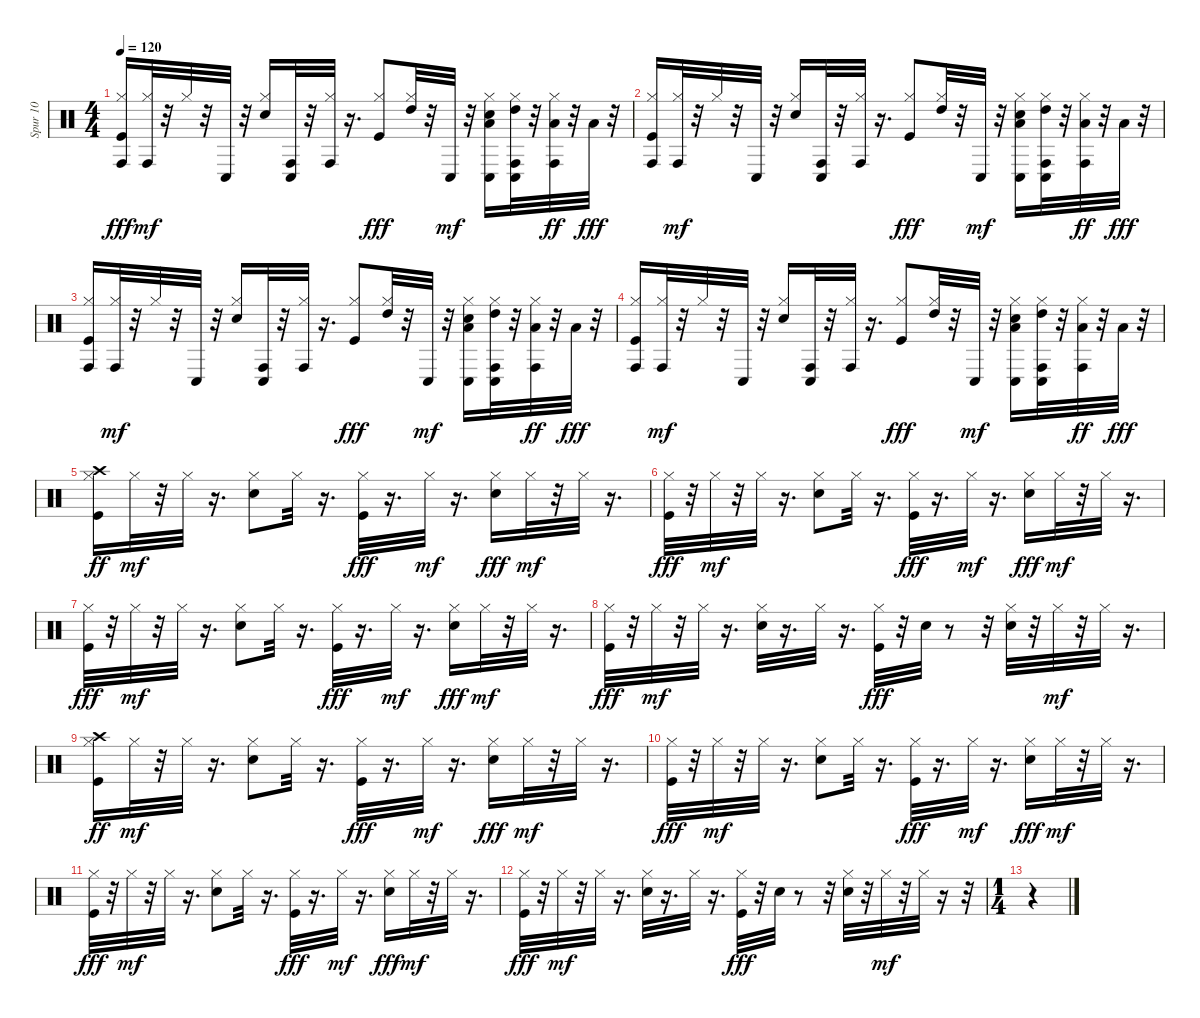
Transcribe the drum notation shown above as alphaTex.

\track ("Spur 10" "Spur 10") {instrument percussion}
\staff {score}
\articulation defaults
\ts (4 4)
\tempo 120
\clef neutral
\ks c
("Kick (hit)" "Hi-Hat (closed)" "Conga high (hit)").16{dy fff} ("Hi-Hat (closed)" "Conga high (hit)").32{dy mf} r.32 "Hi-Hat (closed)".32 r.32 "Conga low (hit)".32 r.32 ("Snare (hit) 2" "Hi-Hat (closed)").16 ("Conga high (hit)" "Conga low (hit)").32 r.32 ("Hi-Hat (closed)" "Conga high (hit)").32 r.16{d} ("Kick (hit)" "Hi-Hat (closed)").8{dy fff} ("Hi-Hat (closed)" "High Tom (hit)").32 r.32 "Conga low (hit)".32{dy mf} r.32 ("Snare (hit) 2" "Hi-Hat (closed)" "Low Tom (hit)" "Conga low (hit)").16 ("Hi-Hat (closed)" "High Tom (hit)" "Conga high (hit)" "Conga low (hit)").32 r.32 ("Hi-Hat (closed)" "Low Tom (hit)" "Conga high (hit)").32{dy ff} r.32 "Low Tom (hit)".32{dy fff} r.32 |
("Kick (hit)" "Hi-Hat (closed)" "Conga high (hit)").16 ("Hi-Hat (closed)" "Conga high (hit)").32{dy mf} r.32 "Hi-Hat (closed)".32 r.32 "Conga low (hit)".32 r.32 ("Snare (hit) 2" "Hi-Hat (closed)").16 ("Conga high (hit)" "Conga low (hit)").32 r.32 ("Hi-Hat (closed)" "Conga high (hit)").32 r.16{d} ("Kick (hit)" "Hi-Hat (closed)").8{dy fff} ("Hi-Hat (closed)" "High Tom (hit)").32 r.32 "Conga low (hit)".32{dy mf} r.32 ("Snare (hit) 2" "Hi-Hat (closed)" "Low Tom (hit)" "Conga low (hit)").16 ("Hi-Hat (closed)" "High Tom (hit)" "Conga high (hit)" "Conga low (hit)").32 r.32 ("Hi-Hat (closed)" "Low Tom (hit)" "Conga high (hit)").32{dy ff} r.32 "Low Tom (hit)".32{dy fff} r.32 |
("Kick (hit)" "Hi-Hat (closed)" "Conga high (hit)").16 ("Hi-Hat (closed)" "Conga high (hit)").32{dy mf} r.32 "Hi-Hat (closed)".32 r.32 "Conga low (hit)".32 r.32 ("Snare (hit) 2" "Hi-Hat (closed)").16 ("Conga high (hit)" "Conga low (hit)").32 r.32 ("Hi-Hat (closed)" "Conga high (hit)").32 r.16{d} ("Kick (hit)" "Hi-Hat (closed)").8{dy fff} ("Hi-Hat (closed)" "High Tom (hit)").32 r.32 "Conga low (hit)".32{dy mf} r.32 ("Snare (hit) 2" "Hi-Hat (closed)" "Low Tom (hit)" "Conga low (hit)").16 ("Hi-Hat (closed)" "High Tom (hit)" "Conga high (hit)" "Conga low (hit)").32 r.32 ("Hi-Hat (closed)" "Low Tom (hit)" "Conga high (hit)").32{dy ff} r.32 "Low Tom (hit)".32{dy fff} r.32 |
("Kick (hit)" "Hi-Hat (closed)" "Conga high (hit)").16 ("Hi-Hat (closed)" "Conga high (hit)").32{dy mf} r.32 "Hi-Hat (closed)".32 r.32 "Conga low (hit)".32 r.32 ("Snare (hit) 2" "Hi-Hat (closed)").16 ("Conga high (hit)" "Conga low (hit)").32 r.32 ("Hi-Hat (closed)" "Conga high (hit)").32 r.16{d} ("Kick (hit)" "Hi-Hat (closed)").8{dy fff} ("Hi-Hat (closed)" "High Tom (hit)").32 r.32 "Conga low (hit)".32{dy mf} r.32 ("Snare (hit) 2" "Hi-Hat (closed)" "Low Tom (hit)" "Conga low (hit)").16 ("Hi-Hat (closed)" "High Tom (hit)" "Conga high (hit)" "Conga low (hit)").32 r.32 ("Hi-Hat (closed)" "Low Tom (hit)" "Conga high (hit)").32{dy ff} r.32 "Low Tom (hit)".32{dy fff} r.32 |
("Kick (hit)" "Hi-Hat (closed)" "Crash high (hit)").16{dy ff} "Hi-Hat (closed)".32{dy mf} r.32 "Hi-Hat (closed)".32 r.16{d} ("Snare (hit) 2" "Hi-Hat (closed)").8 "Hi-Hat (closed)".32 r.16{d} ("Kick (hit)" "Hi-Hat (closed)").32{dy fff} r.16{d} "Hi-Hat (closed)".32{dy mf} r.16{d} ("Snare (hit) 2" "Hi-Hat (closed)").16{dy fff} "Hi-Hat (closed)".32{dy mf} r.32 "Hi-Hat (closed)".32 r.16{d} |
("Kick (hit)" "Hi-Hat (closed)").32{dy fff} r.32 "Hi-Hat (closed)".32{dy mf} r.32 "Hi-Hat (closed)".32 r.16{d} ("Snare (hit) 2" "Hi-Hat (closed)").8 "Hi-Hat (closed)".32 r.16{d} ("Kick (hit)" "Hi-Hat (closed)").32{dy fff} r.16{d} "Hi-Hat (closed)".32{dy mf} r.16{d} ("Snare (hit) 2" "Hi-Hat (closed)").16{dy fff} "Hi-Hat (closed)".32{dy mf} r.32 "Hi-Hat (closed)".32 r.16{d} |
("Kick (hit)" "Hi-Hat (closed)").32{dy fff} r.32 "Hi-Hat (closed)".32{dy mf} r.32 "Hi-Hat (closed)".32 r.16{d} ("Snare (hit) 2" "Hi-Hat (closed)").8 "Hi-Hat (closed)".32 r.16{d} ("Kick (hit)" "Hi-Hat (closed)").32{dy fff} r.16{d} "Hi-Hat (closed)".32{dy mf} r.16{d} ("Snare (hit) 2" "Hi-Hat (closed)").16{dy fff} "Hi-Hat (closed)".32{dy mf} r.32 "Hi-Hat (closed)".32 r.16{d} |
("Kick (hit)" "Hi-Hat (closed)").32{dy fff} r.32 "Hi-Hat (closed)".32{dy mf} r.32 "Hi-Hat (closed)".32 r.16{d} ("Snare (hit) 2" "Hi-Hat (closed)").32 r.16{d} "Hi-Hat (closed)".32 r.16{d} ("Kick (hit)" "Hi-Hat (closed)").32{dy fff} r.32 "Snare (hit) 2".32 r.8 r.32 ("Snare (hit) 2" "Hi-Hat (closed)").32 r.32 "Hi-Hat (closed)".32{dy mf} r.32 "Hi-Hat (closed)".32 r.16{d} |
("Kick (hit)" "Hi-Hat (closed)" "Crash high (hit)").16{dy ff} "Hi-Hat (closed)".32{dy mf} r.32 "Hi-Hat (closed)".32 r.16{d} ("Snare (hit) 2" "Hi-Hat (closed)").8 "Hi-Hat (closed)".32 r.16{d} ("Kick (hit)" "Hi-Hat (closed)").32{dy fff} r.16{d} "Hi-Hat (closed)".32{dy mf} r.16{d} ("Snare (hit) 2" "Hi-Hat (closed)").16{dy fff} "Hi-Hat (closed)".32{dy mf} r.32 "Hi-Hat (closed)".32 r.16{d} |
("Kick (hit)" "Hi-Hat (closed)").32{dy fff} r.32 "Hi-Hat (closed)".32{dy mf} r.32 "Hi-Hat (closed)".32 r.16{d} ("Snare (hit) 2" "Hi-Hat (closed)").8 "Hi-Hat (closed)".32 r.16{d} ("Kick (hit)" "Hi-Hat (closed)").32{dy fff} r.16{d} "Hi-Hat (closed)".32{dy mf} r.16{d} ("Snare (hit) 2" "Hi-Hat (closed)").16{dy fff} "Hi-Hat (closed)".32{dy mf} r.32 "Hi-Hat (closed)".32 r.16{d} |
("Kick (hit)" "Hi-Hat (closed)").32{dy fff} r.32 "Hi-Hat (closed)".32{dy mf} r.32 "Hi-Hat (closed)".32 r.16{d} ("Snare (hit) 2" "Hi-Hat (closed)").8 "Hi-Hat (closed)".32 r.16{d} ("Kick (hit)" "Hi-Hat (closed)").32{dy fff} r.16{d} "Hi-Hat (closed)".32{dy mf} r.16{d} ("Snare (hit) 2" "Hi-Hat (closed)").16{dy fff} "Hi-Hat (closed)".32{dy mf} r.32 "Hi-Hat (closed)".32 r.16{d} |
("Kick (hit)" "Hi-Hat (closed)").32{dy fff} r.32 "Hi-Hat (closed)".32{dy mf} r.32 "Hi-Hat (closed)".32 r.16{d} ("Snare (hit) 2" "Hi-Hat (closed)").32 r.16{d} "Hi-Hat (closed)".32 r.16{d} ("Kick (hit)" "Hi-Hat (closed)").32{dy fff} r.32 "Snare (hit) 2".32 r.8 r.32 ("Snare (hit) 2" "Hi-Hat (closed)").32 r.32 "Hi-Hat (closed)".32{dy mf} r.32 "Hi-Hat (closed)".32 r.16 r.32 |
\ts (1 4)
r.4
